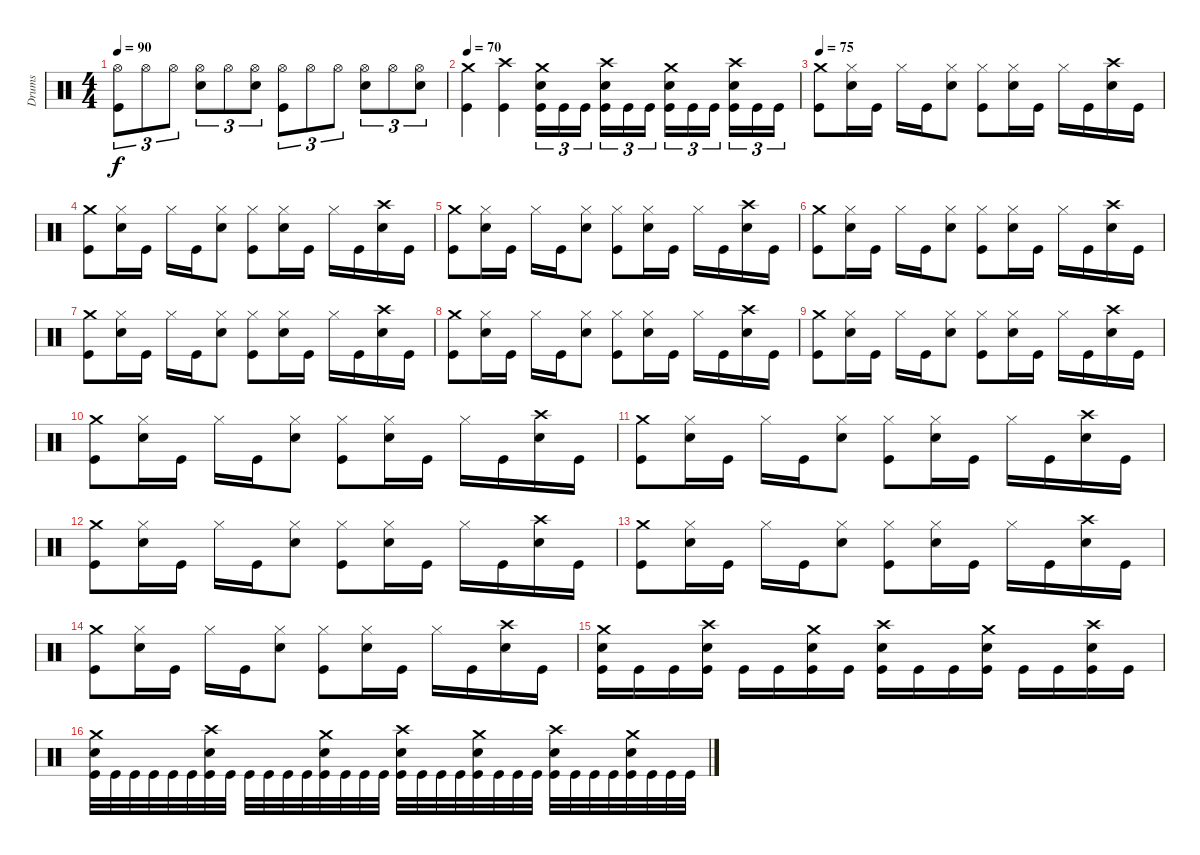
\track ("Drums" "Drums") {instrument percussion}
\staff {score}
\articulation defaults
\ts (4 4)
\tempo 90
\clef neutral
\ks c
("Hi-Hat (open)" "Kick (hit)").8{tu (3 2) dy f} "Hi-Hat (open)".8{tu (3 2)} "Hi-Hat (open)".8{tu (3 2)} ("Hi-Hat (open)" "Snare (hit) 2").8{tu (3 2)} "Hi-Hat (open)".8{tu (3 2)} ("Hi-Hat (open)" "Snare (hit) 2").8{tu (3 2)} ("Hi-Hat (open)" "Kick (hit)").8{tu (3 2)} "Hi-Hat (open)".8{tu (3 2)} "Hi-Hat (open)".8{tu (3 2)} ("Hi-Hat (open)" "Snare (hit) 2").8{tu (3 2)} "Hi-Hat (open)".8{tu (3 2)} ("Hi-Hat (open)" "Snare (hit) 2").8{tu (3 2)} |
\tempo 70
("Crash medium (hit)" "Kick (hit)").4 ("Crash high (hit)" "Kick (hit)").4 ("Crash medium (hit)" "Snare (hit) 2" "Kick (hit)").16{tu (3 2)} "Kick (hit)".16{tu (3 2)} "Kick (hit)".16{tu (3 2)} ("Crash high (hit)" "Snare (hit) 2" "Kick (hit)").16{tu (3 2)} "Kick (hit)".16{tu (3 2)} "Kick (hit)".16{tu (3 2)} ("Crash medium (hit)" "Snare (hit) 2" "Kick (hit)").16{tu (3 2)} "Kick (hit)".16{tu (3 2)} "Kick (hit)".16{tu (3 2)} ("Crash high (hit)" "Snare (hit) 2" "Kick (hit)").16{tu (3 2)} "Kick (hit)".16{tu (3 2)} "Kick (hit)".16{tu (3 2)} |
\tempo 75
("Crash medium (hit)" "Kick (hit)").8 ("Hi-Hat (closed)" "Snare (hit) 2").16 "Kick (hit)".16 "Hi-Hat (closed)".16 "Kick (hit)".16 ("Hi-Hat (closed)" "Snare (hit) 2").8 ("Hi-Hat (closed)" "Kick (hit)").8 ("Hi-Hat (closed)" "Snare (hit) 2").16 "Kick (hit)".16 "Hi-Hat (closed)".16 "Kick (hit)".16 ("Crash high (hit)" "Snare (hit) 2").16 "Kick (hit)".16 |
("Crash medium (hit)" "Kick (hit)").8 ("Hi-Hat (closed)" "Snare (hit) 2").16 "Kick (hit)".16 "Hi-Hat (closed)".16 "Kick (hit)".16 ("Hi-Hat (closed)" "Snare (hit) 2").8 ("Hi-Hat (closed)" "Kick (hit)").8 ("Hi-Hat (closed)" "Snare (hit) 2").16 "Kick (hit)".16 "Hi-Hat (closed)".16 "Kick (hit)".16 ("Crash high (hit)" "Snare (hit) 2").16 "Kick (hit)".16 |
("Crash medium (hit)" "Kick (hit)").8 ("Hi-Hat (closed)" "Snare (hit) 2").16 "Kick (hit)".16 "Hi-Hat (closed)".16 "Kick (hit)".16 ("Hi-Hat (closed)" "Snare (hit) 2").8 ("Hi-Hat (closed)" "Kick (hit)").8 ("Hi-Hat (closed)" "Snare (hit) 2").16 "Kick (hit)".16 "Hi-Hat (closed)".16 "Kick (hit)".16 ("Crash high (hit)" "Snare (hit) 2").16 "Kick (hit)".16 |
("Crash medium (hit)" "Kick (hit)").8 ("Hi-Hat (closed)" "Snare (hit) 2").16 "Kick (hit)".16 "Hi-Hat (closed)".16 "Kick (hit)".16 ("Hi-Hat (closed)" "Snare (hit) 2").8 ("Hi-Hat (closed)" "Kick (hit)").8 ("Hi-Hat (closed)" "Snare (hit) 2").16 "Kick (hit)".16 "Hi-Hat (closed)".16 "Kick (hit)".16 ("Crash high (hit)" "Snare (hit) 2").16 "Kick (hit)".16 |
("Crash medium (hit)" "Kick (hit)").8 ("Hi-Hat (closed)" "Snare (hit) 2").16 "Kick (hit)".16 "Hi-Hat (closed)".16 "Kick (hit)".16 ("Hi-Hat (closed)" "Snare (hit) 2").8 ("Hi-Hat (closed)" "Kick (hit)").8 ("Hi-Hat (closed)" "Snare (hit) 2").16 "Kick (hit)".16 "Hi-Hat (closed)".16 "Kick (hit)".16 ("Crash high (hit)" "Snare (hit) 2").16 "Kick (hit)".16 |
("Crash medium (hit)" "Kick (hit)").8 ("Hi-Hat (closed)" "Snare (hit) 2").16 "Kick (hit)".16 "Hi-Hat (closed)".16 "Kick (hit)".16 ("Hi-Hat (closed)" "Snare (hit) 2").8 ("Hi-Hat (closed)" "Kick (hit)").8 ("Hi-Hat (closed)" "Snare (hit) 2").16 "Kick (hit)".16 "Hi-Hat (closed)".16 "Kick (hit)".16 ("Crash high (hit)" "Snare (hit) 2").16 "Kick (hit)".16 |
("Crash medium (hit)" "Kick (hit)").8 ("Hi-Hat (closed)" "Snare (hit) 2").16 "Kick (hit)".16 "Hi-Hat (closed)".16 "Kick (hit)".16 ("Hi-Hat (closed)" "Snare (hit) 2").8 ("Hi-Hat (closed)" "Kick (hit)").8 ("Hi-Hat (closed)" "Snare (hit) 2").16 "Kick (hit)".16 "Hi-Hat (closed)".16 "Kick (hit)".16 ("Crash high (hit)" "Snare (hit) 2").16 "Kick (hit)".16 |
("Crash medium (hit)" "Kick (hit)").8 ("Hi-Hat (closed)" "Snare (hit) 2").16 "Kick (hit)".16 "Hi-Hat (closed)".16 "Kick (hit)".16 ("Hi-Hat (closed)" "Snare (hit) 2").8 ("Hi-Hat (closed)" "Kick (hit)").8 ("Hi-Hat (closed)" "Snare (hit) 2").16 "Kick (hit)".16 "Hi-Hat (closed)".16 "Kick (hit)".16 ("Crash high (hit)" "Snare (hit) 2").16 "Kick (hit)".16 |
("Crash medium (hit)" "Kick (hit)").8 ("Hi-Hat (closed)" "Snare (hit) 2").16 "Kick (hit)".16 "Hi-Hat (closed)".16 "Kick (hit)".16 ("Hi-Hat (closed)" "Snare (hit) 2").8 ("Hi-Hat (closed)" "Kick (hit)").8 ("Hi-Hat (closed)" "Snare (hit) 2").16 "Kick (hit)".16 "Hi-Hat (closed)".16 "Kick (hit)".16 ("Crash high (hit)" "Snare (hit) 2").16 "Kick (hit)".16 |
("Crash medium (hit)" "Kick (hit)").8 ("Hi-Hat (closed)" "Snare (hit) 2").16 "Kick (hit)".16 "Hi-Hat (closed)".16 "Kick (hit)".16 ("Hi-Hat (closed)" "Snare (hit) 2").8 ("Hi-Hat (closed)" "Kick (hit)").8 ("Hi-Hat (closed)" "Snare (hit) 2").16 "Kick (hit)".16 "Hi-Hat (closed)".16 "Kick (hit)".16 ("Crash high (hit)" "Snare (hit) 2").16 "Kick (hit)".16 |
("Crash medium (hit)" "Kick (hit)").8 ("Hi-Hat (closed)" "Snare (hit) 2").16 "Kick (hit)".16 "Hi-Hat (closed)".16 "Kick (hit)".16 ("Hi-Hat (closed)" "Snare (hit) 2").8 ("Hi-Hat (closed)" "Kick (hit)").8 ("Hi-Hat (closed)" "Snare (hit) 2").16 "Kick (hit)".16 "Hi-Hat (closed)".16 "Kick (hit)".16 ("Crash high (hit)" "Snare (hit) 2").16 "Kick (hit)".16 |
("Crash medium (hit)" "Kick (hit)").8 ("Hi-Hat (closed)" "Snare (hit) 2").16 "Kick (hit)".16 "Hi-Hat (closed)".16 "Kick (hit)".16 ("Hi-Hat (closed)" "Snare (hit) 2").8 ("Hi-Hat (closed)" "Kick (hit)").8 ("Hi-Hat (closed)" "Snare (hit) 2").16 "Kick (hit)".16 "Hi-Hat (closed)".16 "Kick (hit)".16 ("Crash high (hit)" "Snare (hit) 2").16 "Kick (hit)".16 |
("Crash medium (hit)" "Snare (hit) 2" "Kick (hit)").16 "Kick (hit)".16 "Kick (hit)".16 ("Crash high (hit)" "Snare (hit) 2" "Kick (hit)").16 "Kick (hit)".16 "Kick (hit)".16 ("Crash medium (hit)" "Snare (hit) 2" "Kick (hit)").16 "Kick (hit)".16 ("Crash high (hit)" "Snare (hit) 2" "Kick (hit)").16 "Kick (hit)".16 "Kick (hit)".16 ("Crash medium (hit)" "Snare (hit) 2" "Kick (hit)").16 "Kick (hit)".16 "Kick (hit)".16 ("Crash high (hit)" "Snare (hit) 2" "Kick (hit)").16 "Kick (hit)".16 |
("Crash medium (hit)" "Snare (hit) 2" "Kick (hit)").32 "Kick (hit)".32 "Kick (hit)".32 "Kick (hit)".32 "Kick (hit)".32 "Kick (hit)".32 ("Crash high (hit)" "Snare (hit) 2" "Kick (hit)").32 "Kick (hit)".32 "Kick (hit)".32 "Kick (hit)".32 "Kick (hit)".32 "Kick (hit)".32 ("Crash medium (hit)" "Snare (hit) 2" "Kick (hit)").32 "Kick (hit)".32 "Kick (hit)".32 "Kick (hit)".32 ("Crash high (hit)" "Snare (hit) 2" "Kick (hit)").32 "Kick (hit)".32 "Kick (hit)".32 "Kick (hit)".32 ("Crash medium (hit)" "Snare (hit) 2" "Kick (hit)").32 "Kick (hit)".32 "Kick (hit)".32 "Kick (hit)".32 ("Crash high (hit)" "Snare (hit) 2" "Kick (hit)").32 "Kick (hit)".32 "Kick (hit)".32 "Kick (hit)".32 ("Crash medium (hit)" "Snare (hit) 2" "Kick (hit)").32 "Kick (hit)".32 "Kick (hit)".32 "Kick (hit)".32
